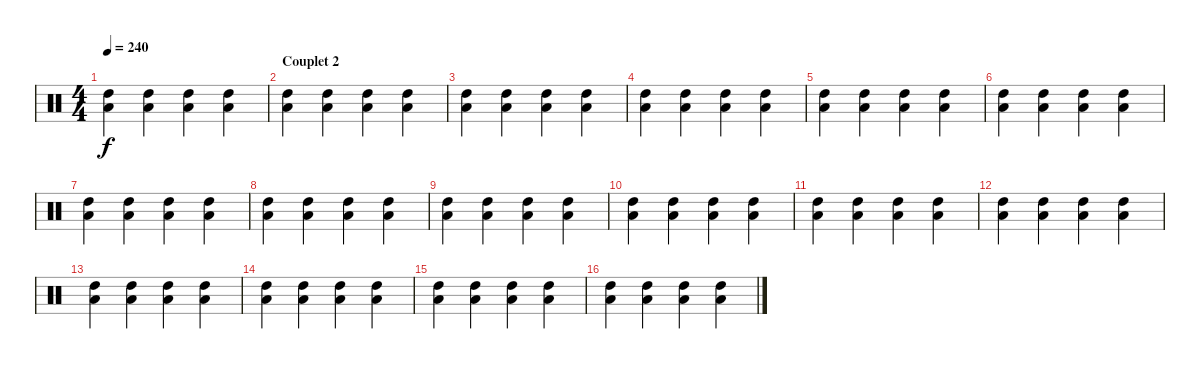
\track "" {instrument percussion}
\staff {score}
\articulation defaults
\ts (4 4)
\tempo 240
\clef neutral
\ks c
("High Tom (hit)" "Low Floor Tom (hit)").4{dy f} ("High Tom (hit)" "Low Floor Tom (hit)").4 ("High Tom (hit)" "Low Floor Tom (hit)").4 ("High Tom (hit)" "Low Floor Tom (hit)").4 |
\section ("" "Couplet 2")
("High Tom (hit)" "Low Floor Tom (hit)").4 ("High Tom (hit)" "Low Floor Tom (hit)").4 ("High Tom (hit)" "Low Floor Tom (hit)").4 ("High Tom (hit)" "Low Floor Tom (hit)").4 |
("High Tom (hit)" "Low Floor Tom (hit)").4 ("High Tom (hit)" "Low Floor Tom (hit)").4 ("High Tom (hit)" "Low Floor Tom (hit)").4 ("High Tom (hit)" "Low Floor Tom (hit)").4 |
("High Tom (hit)" "Low Floor Tom (hit)").4 ("High Tom (hit)" "Low Floor Tom (hit)").4 ("High Tom (hit)" "Low Floor Tom (hit)").4 ("High Tom (hit)" "Low Floor Tom (hit)").4 |
("High Tom (hit)" "Low Floor Tom (hit)").4 ("High Tom (hit)" "Low Floor Tom (hit)").4 ("High Tom (hit)" "Low Floor Tom (hit)").4 ("High Tom (hit)" "Low Floor Tom (hit)").4 |
("High Tom (hit)" "Low Floor Tom (hit)").4 ("High Tom (hit)" "Low Floor Tom (hit)").4 ("High Tom (hit)" "Low Floor Tom (hit)").4 ("High Tom (hit)" "Low Floor Tom (hit)").4 |
("High Tom (hit)" "Low Floor Tom (hit)").4 ("High Tom (hit)" "Low Floor Tom (hit)").4 ("High Tom (hit)" "Low Floor Tom (hit)").4 ("High Tom (hit)" "Low Floor Tom (hit)").4 |
("High Tom (hit)" "Low Floor Tom (hit)").4 ("High Tom (hit)" "Low Floor Tom (hit)").4 ("High Tom (hit)" "Low Floor Tom (hit)").4 ("High Tom (hit)" "Low Floor Tom (hit)").4 |
("High Tom (hit)" "Low Floor Tom (hit)").4 ("High Tom (hit)" "Low Floor Tom (hit)").4 ("High Tom (hit)" "Low Floor Tom (hit)").4 ("High Tom (hit)" "Low Floor Tom (hit)").4 |
("High Tom (hit)" "Low Floor Tom (hit)").4 ("High Tom (hit)" "Low Floor Tom (hit)").4 ("High Tom (hit)" "Low Floor Tom (hit)").4 ("High Tom (hit)" "Low Floor Tom (hit)").4 |
("High Tom (hit)" "Low Floor Tom (hit)").4 ("High Tom (hit)" "Low Floor Tom (hit)").4 ("High Tom (hit)" "Low Floor Tom (hit)").4 ("High Tom (hit)" "Low Floor Tom (hit)").4 |
("High Tom (hit)" "Low Floor Tom (hit)").4 ("High Tom (hit)" "Low Floor Tom (hit)").4 ("High Tom (hit)" "Low Floor Tom (hit)").4 ("High Tom (hit)" "Low Floor Tom (hit)").4 |
("High Tom (hit)" "Low Floor Tom (hit)").4 ("High Tom (hit)" "Low Floor Tom (hit)").4 ("High Tom (hit)" "Low Floor Tom (hit)").4 ("High Tom (hit)" "Low Floor Tom (hit)").4 |
("High Tom (hit)" "Low Floor Tom (hit)").4 ("High Tom (hit)" "Low Floor Tom (hit)").4 ("High Tom (hit)" "Low Floor Tom (hit)").4 ("High Tom (hit)" "Low Floor Tom (hit)").4 |
("High Tom (hit)" "Low Floor Tom (hit)").4 ("High Tom (hit)" "Low Floor Tom (hit)").4 ("High Tom (hit)" "Low Floor Tom (hit)").4 ("High Tom (hit)" "Low Floor Tom (hit)").4 |
("High Tom (hit)" "Low Floor Tom (hit)").4 ("High Tom (hit)" "Low Floor Tom (hit)").4 ("High Tom (hit)" "Low Floor Tom (hit)").4 ("High Tom (hit)" "Low Floor Tom (hit)").4
